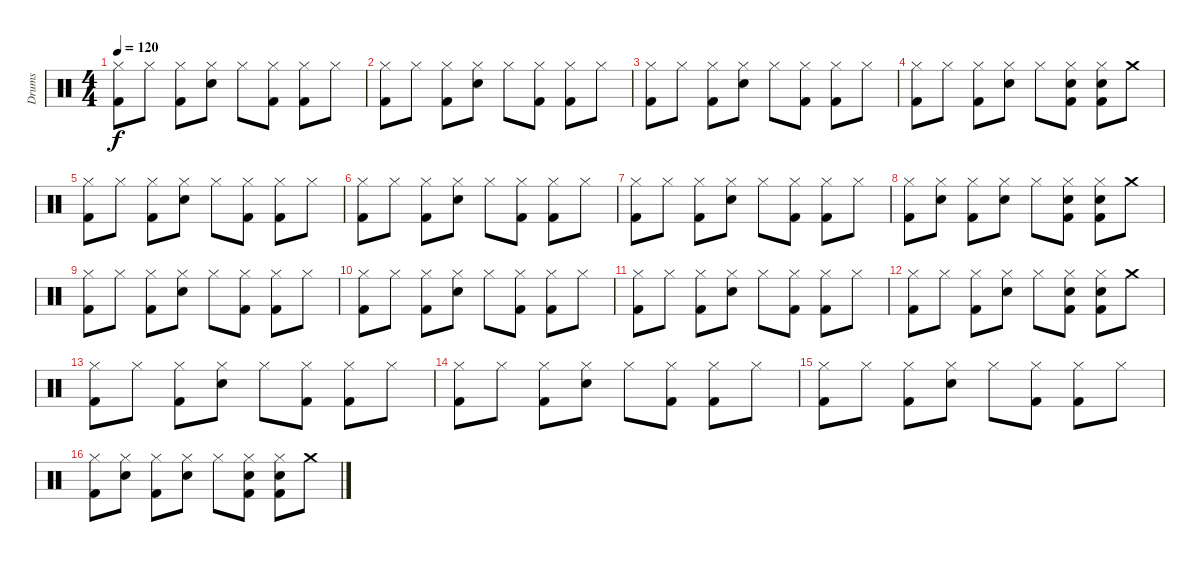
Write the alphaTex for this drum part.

\track ("Drums" "Drums") {instrument percussion}
\staff {score}
\articulation defaults
\ts (4 4)
\tempo 120
\clef neutral
\ks c
("Hi-Hat (closed)" "Kick (hit) 2").8{dy f} "Hi-Hat (closed)".8 ("Hi-Hat (closed)" "Kick (hit) 2").8 ("Hi-Hat (closed)" "Electric Snare (hit)").8 "Hi-Hat (closed)".8 ("Hi-Hat (closed)" "Kick (hit) 2").8 ("Hi-Hat (closed)" "Kick (hit) 2").8 "Hi-Hat (closed)".8 |
("Hi-Hat (closed)" "Kick (hit) 2").8 "Hi-Hat (closed)".8 ("Hi-Hat (closed)" "Kick (hit) 2").8 ("Hi-Hat (closed)" "Electric Snare (hit)").8 "Hi-Hat (closed)".8 ("Hi-Hat (closed)" "Kick (hit) 2").8 ("Hi-Hat (closed)" "Kick (hit) 2").8 "Hi-Hat (closed)".8 |
("Hi-Hat (closed)" "Kick (hit) 2").8 "Hi-Hat (closed)".8 ("Hi-Hat (closed)" "Kick (hit) 2").8 ("Hi-Hat (closed)" "Electric Snare (hit)").8 "Hi-Hat (closed)".8 ("Hi-Hat (closed)" "Kick (hit) 2").8 ("Hi-Hat (closed)" "Kick (hit) 2").8 "Hi-Hat (closed)".8 |
("Hi-Hat (closed)" "Kick (hit) 2").8 "Hi-Hat (closed)".8 ("Hi-Hat (closed)" "Kick (hit) 2").8 ("Hi-Hat (closed)" "Electric Snare (hit)").8 "Hi-Hat (closed)".8 ("Hi-Hat (closed)" "Electric Snare (hit)" "Kick (hit) 2").8 ("Hi-Hat (closed)" "Electric Snare (hit)" "Kick (hit) 2").8 "Crash medium (hit)".8 |
("Hi-Hat (closed)" "Kick (hit) 2").8 "Hi-Hat (closed)".8 ("Hi-Hat (closed)" "Kick (hit) 2").8 ("Hi-Hat (closed)" "Electric Snare (hit)").8 "Hi-Hat (closed)".8 ("Hi-Hat (closed)" "Kick (hit) 2").8 ("Hi-Hat (closed)" "Kick (hit) 2").8 "Hi-Hat (closed)".8 |
("Hi-Hat (closed)" "Kick (hit) 2").8 "Hi-Hat (closed)".8 ("Hi-Hat (closed)" "Kick (hit) 2").8 ("Hi-Hat (closed)" "Electric Snare (hit)").8 "Hi-Hat (closed)".8 ("Hi-Hat (closed)" "Kick (hit) 2").8 ("Hi-Hat (closed)" "Kick (hit) 2").8 "Hi-Hat (closed)".8 |
("Hi-Hat (closed)" "Kick (hit) 2").8 "Hi-Hat (closed)".8 ("Hi-Hat (closed)" "Kick (hit) 2").8 ("Hi-Hat (closed)" "Electric Snare (hit)").8 "Hi-Hat (closed)".8 ("Hi-Hat (closed)" "Kick (hit) 2").8 ("Hi-Hat (closed)" "Kick (hit) 2").8 "Hi-Hat (closed)".8 |
("Hi-Hat (closed)" "Kick (hit) 2").8 ("Hi-Hat (closed)" "Electric Snare (hit)").8 ("Hi-Hat (closed)" "Kick (hit) 2").8 ("Hi-Hat (closed)" "Electric Snare (hit)").8 "Hi-Hat (closed)".8 ("Hi-Hat (closed)" "Electric Snare (hit)" "Kick (hit) 2").8 ("Hi-Hat (closed)" "Electric Snare (hit)" "Kick (hit) 2").8 "Crash medium (hit)".8 |
("Hi-Hat (closed)" "Kick (hit) 2").8 "Hi-Hat (closed)".8 ("Hi-Hat (closed)" "Kick (hit) 2").8 ("Hi-Hat (closed)" "Electric Snare (hit)").8 "Hi-Hat (closed)".8 ("Hi-Hat (closed)" "Kick (hit) 2").8 ("Hi-Hat (closed)" "Kick (hit) 2").8 "Hi-Hat (closed)".8 |
("Hi-Hat (closed)" "Kick (hit) 2").8 "Hi-Hat (closed)".8 ("Hi-Hat (closed)" "Kick (hit) 2").8 ("Hi-Hat (closed)" "Electric Snare (hit)").8 "Hi-Hat (closed)".8 ("Hi-Hat (closed)" "Kick (hit) 2").8 ("Hi-Hat (closed)" "Kick (hit) 2").8 "Hi-Hat (closed)".8 |
("Hi-Hat (closed)" "Kick (hit) 2").8 "Hi-Hat (closed)".8 ("Hi-Hat (closed)" "Kick (hit) 2").8 ("Hi-Hat (closed)" "Electric Snare (hit)").8 "Hi-Hat (closed)".8 ("Hi-Hat (closed)" "Kick (hit) 2").8 ("Hi-Hat (closed)" "Kick (hit) 2").8 "Hi-Hat (closed)".8 |
("Hi-Hat (closed)" "Kick (hit) 2").8 "Hi-Hat (closed)".8 ("Hi-Hat (closed)" "Kick (hit) 2").8 ("Hi-Hat (closed)" "Electric Snare (hit)").8 "Hi-Hat (closed)".8 ("Hi-Hat (closed)" "Electric Snare (hit)" "Kick (hit) 2").8 ("Hi-Hat (closed)" "Electric Snare (hit)" "Kick (hit) 2").8 "Crash medium (hit)".8 |
("Hi-Hat (closed)" "Kick (hit) 2").8 "Hi-Hat (closed)".8 ("Hi-Hat (closed)" "Kick (hit) 2").8 ("Hi-Hat (closed)" "Electric Snare (hit)").8 "Hi-Hat (closed)".8 ("Hi-Hat (closed)" "Kick (hit) 2").8 ("Hi-Hat (closed)" "Kick (hit) 2").8 "Hi-Hat (closed)".8 |
("Hi-Hat (closed)" "Kick (hit) 2").8 "Hi-Hat (closed)".8 ("Hi-Hat (closed)" "Kick (hit) 2").8 ("Hi-Hat (closed)" "Electric Snare (hit)").8 "Hi-Hat (closed)".8 ("Hi-Hat (closed)" "Kick (hit) 2").8 ("Hi-Hat (closed)" "Kick (hit) 2").8 "Hi-Hat (closed)".8 |
("Hi-Hat (closed)" "Kick (hit) 2").8 "Hi-Hat (closed)".8 ("Hi-Hat (closed)" "Kick (hit) 2").8 ("Hi-Hat (closed)" "Electric Snare (hit)").8 "Hi-Hat (closed)".8 ("Hi-Hat (closed)" "Kick (hit) 2").8 ("Hi-Hat (closed)" "Kick (hit) 2").8 "Hi-Hat (closed)".8 |
("Hi-Hat (closed)" "Kick (hit) 2").8 ("Hi-Hat (closed)" "Electric Snare (hit)").8 ("Hi-Hat (closed)" "Kick (hit) 2").8 ("Hi-Hat (closed)" "Electric Snare (hit)").8 "Hi-Hat (closed)".8 ("Hi-Hat (closed)" "Electric Snare (hit)" "Kick (hit) 2").8 ("Hi-Hat (closed)" "Electric Snare (hit)" "Kick (hit) 2").8 "Crash medium (hit)".8
